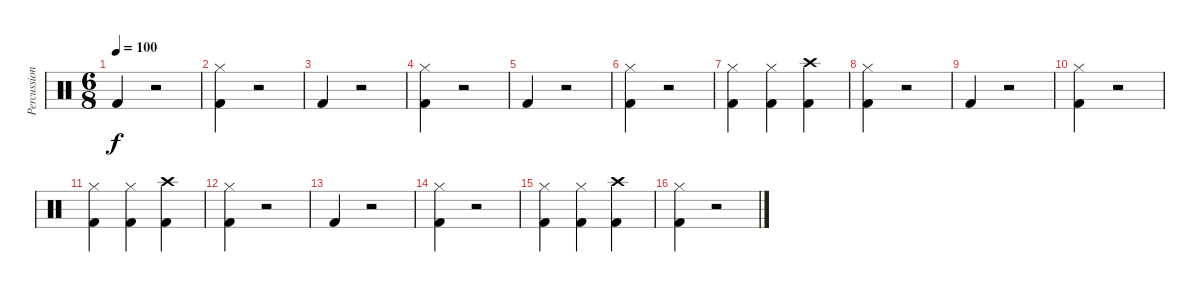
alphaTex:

\track ("Percussion" "Percussion") {instrument percussion}
\staff {score}
\articulation defaults
\ts (6 8)
\tempo 100
\clef neutral
\ks c "Kick (hit) 2".4{dy f}
r.2 |
("Kick (hit) 2" "Hi-Hat (closed)").4 r.2 |
"Kick (hit) 2".4 r.2 |
("Kick (hit) 2" "Hi-Hat (closed)").4 r.2 |
"Kick (hit) 2".4 r.2 |
("Kick (hit) 2" "Hi-Hat (closed)").4 r.2 |
("Kick (hit) 2" "Hi-Hat (closed)").4 ("Kick (hit) 2" "Hi-Hat (closed)").4 ("Kick (hit) 2" "Crash high (hit)").4 |
("Kick (hit) 2" "Hi-Hat (closed)").4 r.2 |
"Kick (hit) 2".4 r.2 |
("Kick (hit) 2" "Hi-Hat (closed)").4 r.2 |
("Kick (hit) 2" "Hi-Hat (closed)").4 ("Kick (hit) 2" "Hi-Hat (closed)").4 ("Kick (hit) 2" "Crash high (hit)").4 |
("Kick (hit) 2" "Hi-Hat (closed)").4 r.2 |
"Kick (hit) 2".4 r.2 |
("Kick (hit) 2" "Hi-Hat (closed)").4 r.2 |
("Kick (hit) 2" "Hi-Hat (closed)").4 ("Kick (hit) 2" "Hi-Hat (closed)").4 ("Kick (hit) 2" "Crash high (hit)").4 |
("Kick (hit) 2" "Hi-Hat (closed)").4 r.2
